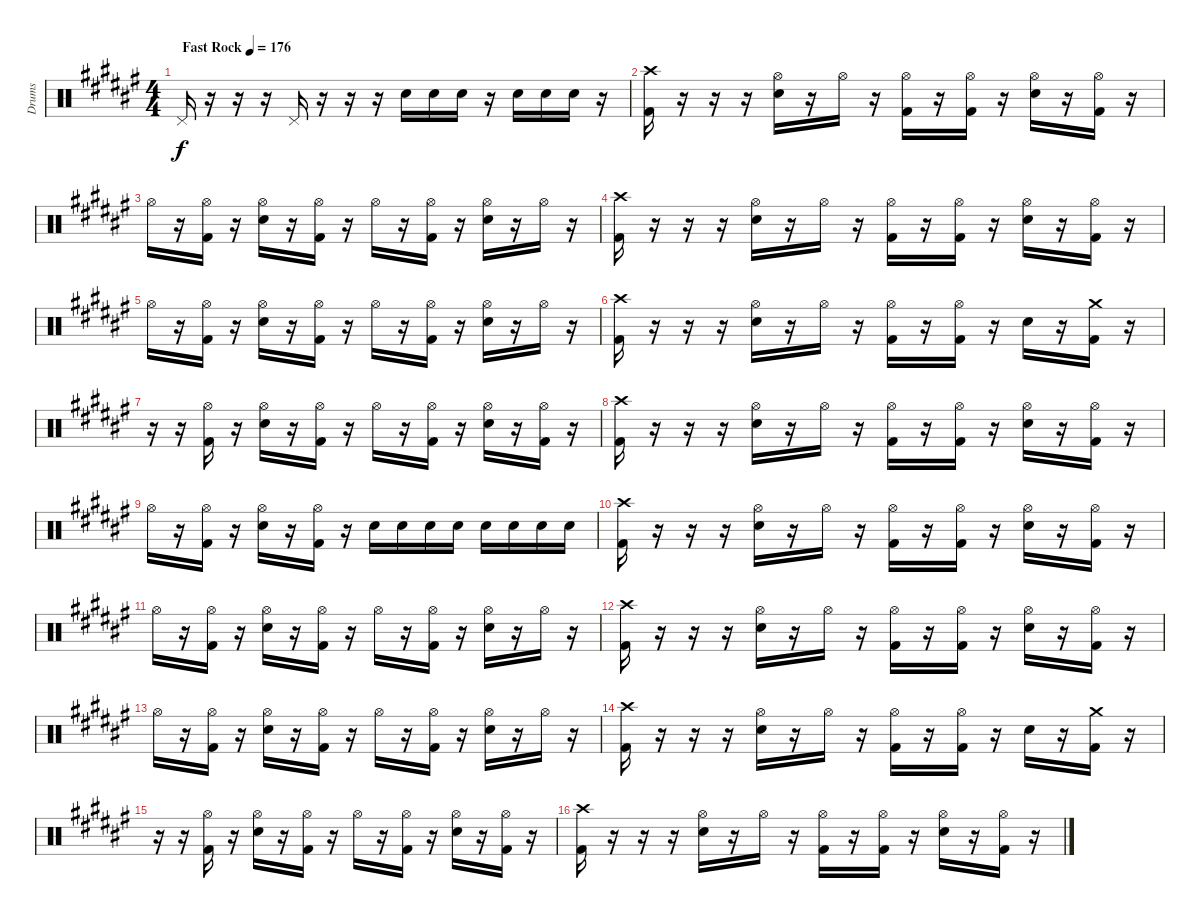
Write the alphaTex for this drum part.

\track ("Drums" "Drums") {instrument percussion}
\staff {score}
\articulation defaults
\ts (4 4)
\tempo (176 "Fast Rock")
\clef neutral
\ks f# "Pedal Hi-Hat (hit)".16{dy f}
r.16 r.16 r.16 "Pedal Hi-Hat (hit)".16 r.16 r.16 r.16 "Electric Snare (hit)".16 "Electric Snare (hit)".16 "Electric Snare (hit)".16 r.16 "Electric Snare (hit)".16 "Electric Snare (hit)".16 "Electric Snare (hit)".16 r.16 |
("Crash high (hit)" "Kick (hit) 2").16 r.16 r.16 r.16 ("Hi-Hat (open)" "Electric Snare (hit)").16 r.16 "Hi-Hat (open)".16 r.16 ("Hi-Hat (open)" "Kick (hit) 2").16 r.16 ("Hi-Hat (open)" "Kick (hit) 2").16 r.16 ("Hi-Hat (open)" "Electric Snare (hit)").16 r.16 ("Hi-Hat (open)" "Kick (hit) 2").16 r.16 |
"Hi-Hat (open)".16 r.16 ("Hi-Hat (open)" "Kick (hit) 2").16 r.16 ("Hi-Hat (open)" "Electric Snare (hit)").16 r.16 ("Hi-Hat (open)" "Kick (hit) 2").16 r.16 "Hi-Hat (open)".16 r.16 ("Hi-Hat (open)" "Kick (hit) 2").16 r.16 ("Hi-Hat (open)" "Electric Snare (hit)").16 r.16 "Hi-Hat (open)".16 r.16 |
("Crash high (hit)" "Kick (hit) 2").16 r.16 r.16 r.16 ("Hi-Hat (open)" "Electric Snare (hit)").16 r.16 "Hi-Hat (open)".16 r.16 ("Hi-Hat (open)" "Kick (hit) 2").16 r.16 ("Hi-Hat (open)" "Kick (hit) 2").16 r.16 ("Hi-Hat (open)" "Electric Snare (hit)").16 r.16 ("Hi-Hat (open)" "Kick (hit) 2").16 r.16 |
"Hi-Hat (open)".16 r.16 ("Hi-Hat (open)" "Kick (hit) 2").16 r.16 ("Hi-Hat (open)" "Electric Snare (hit)").16 r.16 ("Hi-Hat (open)" "Kick (hit) 2").16 r.16 "Hi-Hat (open)".16 r.16 ("Hi-Hat (open)" "Kick (hit) 2").16 r.16 ("Hi-Hat (open)" "Electric Snare (hit)").16 r.16 "Hi-Hat (open)".16 r.16 |
("Crash high (hit)" "Kick (hit) 2").16 r.16 r.16 r.16 ("Hi-Hat (open)" "Electric Snare (hit)").16 r.16 "Hi-Hat (open)".16 r.16 ("Hi-Hat (open)" "Kick (hit) 2").16 r.16 ("Hi-Hat (open)" "Kick (hit) 2").16 r.16 "Electric Snare (hit)".16 r.16 ("Crash medium (hit)" "Kick (hit) 2").16 r.16 |
r.16 r.16 ("Hi-Hat (open)" "Kick (hit) 2").16 r.16 ("Hi-Hat (open)" "Electric Snare (hit)").16 r.16 ("Hi-Hat (open)" "Kick (hit) 2").16 r.16 "Hi-Hat (open)".16 r.16 ("Hi-Hat (open)" "Kick (hit) 2").16 r.16 ("Hi-Hat (open)" "Electric Snare (hit)").16 r.16 ("Hi-Hat (open)" "Kick (hit) 2").16 r.16 |
("Crash high (hit)" "Kick (hit) 2").16 r.16 r.16 r.16 ("Hi-Hat (open)" "Electric Snare (hit)").16 r.16 "Hi-Hat (open)".16 r.16 ("Hi-Hat (open)" "Kick (hit) 2").16 r.16 ("Hi-Hat (open)" "Kick (hit) 2").16 r.16 ("Hi-Hat (open)" "Electric Snare (hit)").16 r.16 ("Hi-Hat (open)" "Kick (hit) 2").16 r.16 |
"Hi-Hat (open)".16 r.16 ("Hi-Hat (open)" "Kick (hit) 2").16 r.16 ("Hi-Hat (open)" "Electric Snare (hit)").16 r.16 ("Hi-Hat (open)" "Kick (hit) 2").16 r.16 "Electric Snare (hit)".16 "Electric Snare (hit)".16 "Electric Snare (hit)".16 "Electric Snare (hit)".16 "Electric Snare (hit)".16 "Electric Snare (hit)".16 "Electric Snare (hit)".16 "Electric Snare (hit)".16 |
("Crash high (hit)" "Kick (hit) 2").16 r.16 r.16 r.16 ("Hi-Hat (open)" "Electric Snare (hit)").16 r.16 "Hi-Hat (open)".16 r.16 ("Hi-Hat (open)" "Kick (hit) 2").16 r.16 ("Hi-Hat (open)" "Kick (hit) 2").16 r.16 ("Hi-Hat (open)" "Electric Snare (hit)").16 r.16 ("Hi-Hat (open)" "Kick (hit) 2").16 r.16 |
"Hi-Hat (open)".16 r.16 ("Hi-Hat (open)" "Kick (hit) 2").16 r.16 ("Hi-Hat (open)" "Electric Snare (hit)").16 r.16 ("Hi-Hat (open)" "Kick (hit) 2").16 r.16 "Hi-Hat (open)".16 r.16 ("Hi-Hat (open)" "Kick (hit) 2").16 r.16 ("Hi-Hat (open)" "Electric Snare (hit)").16 r.16 "Hi-Hat (open)".16 r.16 |
("Crash high (hit)" "Kick (hit) 2").16 r.16 r.16 r.16 ("Hi-Hat (open)" "Electric Snare (hit)").16 r.16 "Hi-Hat (open)".16 r.16 ("Hi-Hat (open)" "Kick (hit) 2").16 r.16 ("Hi-Hat (open)" "Kick (hit) 2").16 r.16 ("Hi-Hat (open)" "Electric Snare (hit)").16 r.16 ("Hi-Hat (open)" "Kick (hit) 2").16 r.16 |
"Hi-Hat (open)".16 r.16 ("Hi-Hat (open)" "Kick (hit) 2").16 r.16 ("Hi-Hat (open)" "Electric Snare (hit)").16 r.16 ("Hi-Hat (open)" "Kick (hit) 2").16 r.16 "Hi-Hat (open)".16 r.16 ("Hi-Hat (open)" "Kick (hit) 2").16 r.16 ("Hi-Hat (open)" "Electric Snare (hit)").16 r.16 "Hi-Hat (open)".16 r.16 |
("Crash high (hit)" "Kick (hit) 2").16 r.16 r.16 r.16 ("Hi-Hat (open)" "Electric Snare (hit)").16 r.16 "Hi-Hat (open)".16 r.16 ("Hi-Hat (open)" "Kick (hit) 2").16 r.16 ("Hi-Hat (open)" "Kick (hit) 2").16 r.16 "Electric Snare (hit)".16 r.16 ("Crash medium (hit)" "Kick (hit) 2").16 r.16 |
r.16 r.16 ("Hi-Hat (open)" "Kick (hit) 2").16 r.16 ("Hi-Hat (open)" "Electric Snare (hit)").16 r.16 ("Hi-Hat (open)" "Kick (hit) 2").16 r.16 "Hi-Hat (open)".16 r.16 ("Hi-Hat (open)" "Kick (hit) 2").16 r.16 ("Hi-Hat (open)" "Electric Snare (hit)").16 r.16 ("Hi-Hat (open)" "Kick (hit) 2").16 r.16 |
("Crash high (hit)" "Kick (hit) 2").16 r.16 r.16 r.16 ("Hi-Hat (open)" "Electric Snare (hit)").16 r.16 "Hi-Hat (open)".16 r.16 ("Hi-Hat (open)" "Kick (hit) 2").16 r.16 ("Hi-Hat (open)" "Kick (hit) 2").16 r.16 ("Hi-Hat (open)" "Electric Snare (hit)").16 r.16 ("Hi-Hat (open)" "Kick (hit) 2").16 r.16
